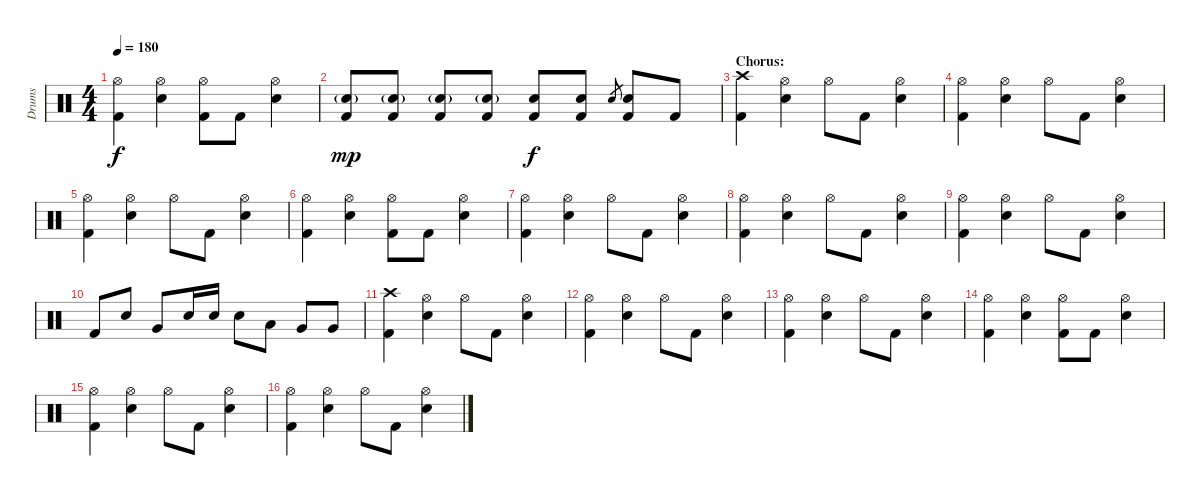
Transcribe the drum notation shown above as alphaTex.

\track ("Drums" "Drums") {instrument percussion}
\staff {score}
\articulation defaults
\ts (4 4)
\tempo 180
\clef neutral
\ks c
("Hi-Hat (open)" "Kick (hit) 2").4{dy f} ("Hi-Hat (open)" "Electric Snare (hit)").4 ("Hi-Hat (open)" "Kick (hit) 2").8 "Kick (hit) 2".8 ("Hi-Hat (open)" "Electric Snare (hit)").4 |
("Electric Snare (hit)"{g} "Kick (hit) 2").8{dy mp} ("Electric Snare (hit)"{g} "Kick (hit) 2").8 ("Electric Snare (hit)"{g} "Kick (hit) 2").8 ("Electric Snare (hit)"{g} "Kick (hit) 2").8 ("Electric Snare (hit)" "Kick (hit) 2").8{dy f} ("Electric Snare (hit)" "Kick (hit) 2").8 "Electric Snare (hit)".8{gr} ("Electric Snare (hit)" "Kick (hit) 2").8 "Kick (hit) 2".8 |
\section ("" "Chorus:")
("Crash high (hit)" "Kick (hit) 2").4 ("Hi-Hat (open)" "Electric Snare (hit)").4 "Hi-Hat (open)".8 "Kick (hit) 2".8 ("Hi-Hat (open)" "Electric Snare (hit)").4 |
("Hi-Hat (open)" "Kick (hit) 2").4 ("Hi-Hat (open)" "Electric Snare (hit)").4 "Hi-Hat (open)".8 "Kick (hit) 2".8 ("Hi-Hat (open)" "Electric Snare (hit)").4 |
("Hi-Hat (open)" "Kick (hit) 2").4 ("Hi-Hat (open)" "Electric Snare (hit)").4 "Hi-Hat (open)".8 "Kick (hit) 2".8 ("Hi-Hat (open)" "Electric Snare (hit)").4 |
("Hi-Hat (open)" "Kick (hit) 2").4 ("Hi-Hat (open)" "Electric Snare (hit)").4 ("Hi-Hat (open)" "Kick (hit) 2").8 "Kick (hit) 2".8 ("Hi-Hat (open)" "Electric Snare (hit)").4 |
("Hi-Hat (open)" "Kick (hit) 2").4 ("Hi-Hat (open)" "Electric Snare (hit)").4 "Hi-Hat (open)".8 "Kick (hit) 2".8 ("Hi-Hat (open)" "Electric Snare (hit)").4 |
("Hi-Hat (open)" "Kick (hit) 2").4 ("Hi-Hat (open)" "Electric Snare (hit)").4 "Hi-Hat (open)".8 "Kick (hit) 2".8 ("Hi-Hat (open)" "Electric Snare (hit)").4 |
("Hi-Hat (open)" "Kick (hit) 2").4 ("Hi-Hat (open)" "Electric Snare (hit)").4 "Hi-Hat (open)".8 "Kick (hit) 2".8 ("Hi-Hat (open)" "Electric Snare (hit)").4 |
"Kick (hit) 2".8 "Electric Snare (hit)".8 "Very Low Tom (hit)".8 "Electric Snare (hit)".16 "Electric Snare (hit)".16 "Electric Snare (hit)".8 "Low Tom (hit)".8 "Very Low Tom (hit)".8 "Very Low Tom (hit)".8 |
("Crash high (hit)" "Kick (hit) 2").4 ("Hi-Hat (open)" "Electric Snare (hit)").4 "Hi-Hat (open)".8 "Kick (hit) 2".8 ("Hi-Hat (open)" "Electric Snare (hit)").4 |
("Hi-Hat (open)" "Kick (hit) 2").4 ("Hi-Hat (open)" "Electric Snare (hit)").4 "Hi-Hat (open)".8 "Kick (hit) 2".8 ("Hi-Hat (open)" "Electric Snare (hit)").4 |
("Hi-Hat (open)" "Kick (hit) 2").4 ("Hi-Hat (open)" "Electric Snare (hit)").4 "Hi-Hat (open)".8 "Kick (hit) 2".8 ("Hi-Hat (open)" "Electric Snare (hit)").4 |
("Hi-Hat (open)" "Kick (hit) 2").4 ("Hi-Hat (open)" "Electric Snare (hit)").4 ("Hi-Hat (open)" "Kick (hit) 2").8 "Kick (hit) 2".8 ("Hi-Hat (open)" "Electric Snare (hit)").4 |
("Hi-Hat (open)" "Kick (hit) 2").4 ("Hi-Hat (open)" "Electric Snare (hit)").4 "Hi-Hat (open)".8 "Kick (hit) 2".8 ("Hi-Hat (open)" "Electric Snare (hit)").4 |
("Hi-Hat (open)" "Kick (hit) 2").4 ("Hi-Hat (open)" "Electric Snare (hit)").4 "Hi-Hat (open)".8 "Kick (hit) 2".8 ("Hi-Hat (open)" "Electric Snare (hit)").4
